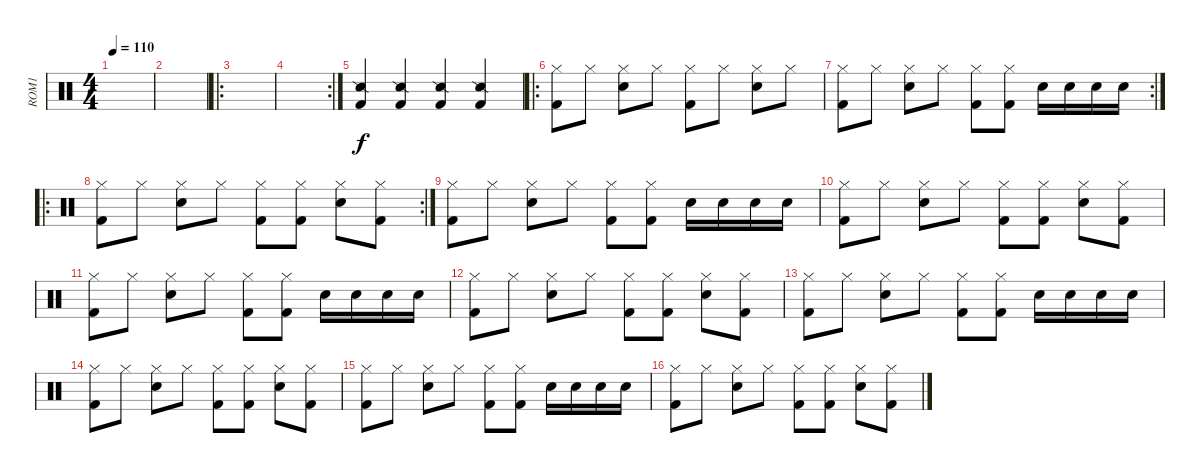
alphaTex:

\track ("ROM1" "ROM1") {instrument percussion}
\staff {score}
\articulation defaults
\ts (4 4)
\tempo 110
\clef neutral
\ks c
|
|
\ro
|
\rc 2
|
("Snare (side stick) 2" "Kick (hit) 2").4 ("Snare (side stick) 2" "Kick (hit) 2").4 ("Snare (side stick) 2" "Kick (hit) 2").4 ("Snare (side stick) 2" "Kick (hit) 2").4 |
\ro
("Kick (hit) 2" "Hi-Hat (closed)").8 "Hi-Hat (closed)".8 ("Electric Snare (hit)" "Hi-Hat (closed)").8 "Hi-Hat (closed)".8 ("Kick (hit) 2" "Hi-Hat (closed)").8 "Hi-Hat (closed)".8 ("Electric Snare (hit)" "Hi-Hat (closed)").8 "Hi-Hat (closed)".8 |
\rc 2
("Kick (hit) 2" "Hi-Hat (closed)").8 "Hi-Hat (closed)".8 ("Electric Snare (hit)" "Hi-Hat (closed)").8 "Hi-Hat (closed)".8 ("Kick (hit) 2" "Hi-Hat (closed)").8 ("Kick (hit) 2" "Hi-Hat (closed)").8 "Electric Snare (hit)".16 "Electric Snare (hit)".16 "Electric Snare (hit)".16 "Electric Snare (hit)".16 |
\ro
\rc 2
("Kick (hit) 2" "Hi-Hat (closed)").8 "Hi-Hat (closed)".8 ("Electric Snare (hit)" "Hi-Hat (closed)").8 "Hi-Hat (closed)".8 ("Kick (hit) 2" "Hi-Hat (closed)").8 ("Kick (hit) 2" "Hi-Hat (closed)").8 ("Electric Snare (hit)" "Hi-Hat (closed)").8 ("Kick (hit) 2" "Hi-Hat (closed)").8 |
("Kick (hit) 2" "Hi-Hat (closed)").8 "Hi-Hat (closed)".8 ("Electric Snare (hit)" "Hi-Hat (closed)").8 "Hi-Hat (closed)".8 ("Kick (hit) 2" "Hi-Hat (closed)").8 ("Kick (hit) 2" "Hi-Hat (closed)").8 "Electric Snare (hit)".16 "Electric Snare (hit)".16 "Electric Snare (hit)".16 "Electric Snare (hit)".16 |
("Kick (hit) 2" "Hi-Hat (closed)").8 "Hi-Hat (closed)".8 ("Electric Snare (hit)" "Hi-Hat (closed)").8 "Hi-Hat (closed)".8 ("Kick (hit) 2" "Hi-Hat (closed)").8 ("Kick (hit) 2" "Hi-Hat (closed)").8 ("Electric Snare (hit)" "Hi-Hat (closed)").8 ("Kick (hit) 2" "Hi-Hat (closed)").8 |
("Kick (hit) 2" "Hi-Hat (closed)").8 "Hi-Hat (closed)".8 ("Electric Snare (hit)" "Hi-Hat (closed)").8 "Hi-Hat (closed)".8 ("Kick (hit) 2" "Hi-Hat (closed)").8 ("Kick (hit) 2" "Hi-Hat (closed)").8 "Electric Snare (hit)".16 "Electric Snare (hit)".16 "Electric Snare (hit)".16 "Electric Snare (hit)".16 |
("Kick (hit) 2" "Hi-Hat (closed)").8 "Hi-Hat (closed)".8 ("Electric Snare (hit)" "Hi-Hat (closed)").8 "Hi-Hat (closed)".8 ("Kick (hit) 2" "Hi-Hat (closed)").8 ("Kick (hit) 2" "Hi-Hat (closed)").8 ("Electric Snare (hit)" "Hi-Hat (closed)").8 ("Kick (hit) 2" "Hi-Hat (closed)").8 |
("Kick (hit) 2" "Hi-Hat (closed)").8 "Hi-Hat (closed)".8 ("Electric Snare (hit)" "Hi-Hat (closed)").8 "Hi-Hat (closed)".8 ("Kick (hit) 2" "Hi-Hat (closed)").8 ("Kick (hit) 2" "Hi-Hat (closed)").8 "Electric Snare (hit)".16 "Electric Snare (hit)".16 "Electric Snare (hit)".16 "Electric Snare (hit)".16 |
("Kick (hit) 2" "Hi-Hat (closed)").8 "Hi-Hat (closed)".8 ("Electric Snare (hit)" "Hi-Hat (closed)").8 "Hi-Hat (closed)".8 ("Kick (hit) 2" "Hi-Hat (closed)").8 ("Kick (hit) 2" "Hi-Hat (closed)").8 ("Electric Snare (hit)" "Hi-Hat (closed)").8 ("Kick (hit) 2" "Hi-Hat (closed)").8 |
("Kick (hit) 2" "Hi-Hat (closed)").8 "Hi-Hat (closed)".8 ("Electric Snare (hit)" "Hi-Hat (closed)").8 "Hi-Hat (closed)".8 ("Kick (hit) 2" "Hi-Hat (closed)").8 ("Kick (hit) 2" "Hi-Hat (closed)").8 "Electric Snare (hit)".16 "Electric Snare (hit)".16 "Electric Snare (hit)".16 "Electric Snare (hit)".16 |
("Kick (hit) 2" "Hi-Hat (closed)").8 "Hi-Hat (closed)".8 ("Electric Snare (hit)" "Hi-Hat (closed)").8 "Hi-Hat (closed)".8 ("Kick (hit) 2" "Hi-Hat (closed)").8 ("Kick (hit) 2" "Hi-Hat (closed)").8 ("Electric Snare (hit)" "Hi-Hat (closed)").8 ("Kick (hit) 2" "Hi-Hat (closed)").8
